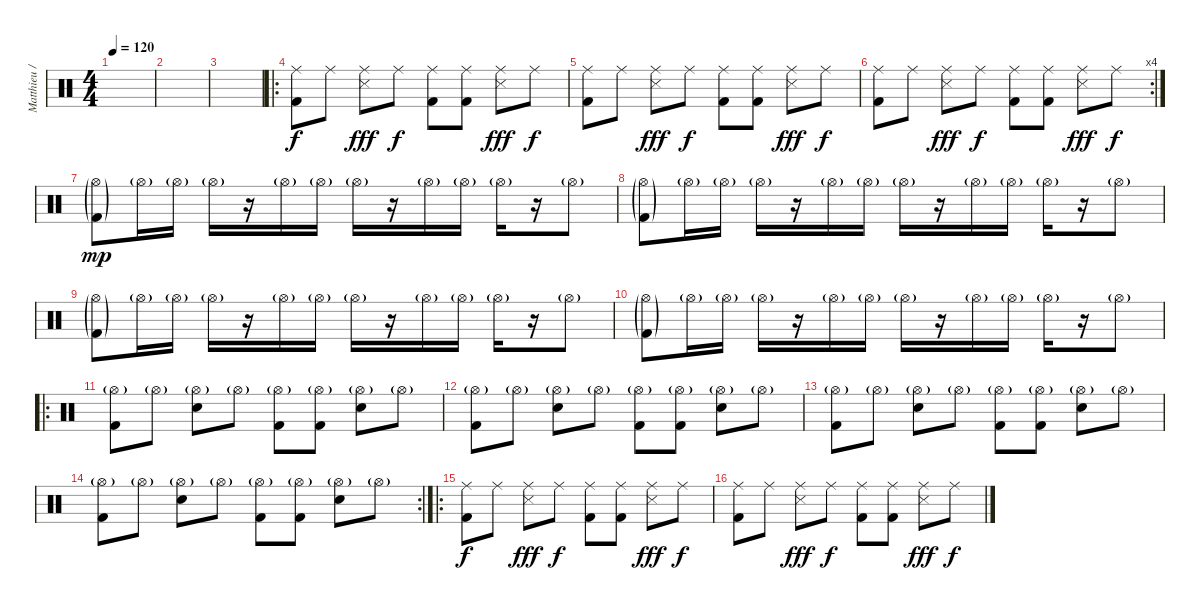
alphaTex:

\track ("Matthieu / drums" "Matthieu /") {instrument percussion}
\staff {score}
\articulation defaults
\ts (4 4)
\tempo 120
\clef neutral
\ks c
|
|
|
\ro
("Ride (middle)" "Kick (hit) 2").8 "Ride (middle)".8 ("Ride (middle)" "Snare (side stick) 3").8{dy fff} "Ride (middle)".8{dy f} ("Ride (middle)" "Kick (hit) 2").8 ("Ride (middle)" "Kick (hit) 2").8 ("Ride (middle)" "Snare (side stick) 3").8{dy fff} "Ride (middle)".8{dy f} |
("Ride (middle)" "Kick (hit) 2").8 "Ride (middle)".8 ("Ride (middle)" "Snare (side stick) 3").8{dy fff} "Ride (middle)".8{dy f} ("Ride (middle)" "Kick (hit) 2").8 ("Ride (middle)" "Kick (hit) 2").8 ("Ride (middle)" "Snare (side stick) 3").8{dy fff} "Ride (middle)".8{dy f} |
\rc 4
("Ride (middle)" "Kick (hit) 2").8 "Ride (middle)".8 ("Ride (middle)" "Snare (side stick) 3").8{dy fff} "Ride (middle)".8{dy f} ("Ride (middle)" "Kick (hit) 2").8 ("Ride (middle)" "Kick (hit) 2").8 ("Ride (middle)" "Snare (side stick) 3").8{dy fff} "Ride (middle)".8{dy f} |
("Hi-Hat (open)"{g} "Kick (hit) 2"{g}).8{dy mp} "Hi-Hat (open)"{g}.16 "Hi-Hat (open)"{g}.16 "Hi-Hat (open)"{g}.16 r.16 "Hi-Hat (open)"{g}.16 "Hi-Hat (open)"{g}.16 "Hi-Hat (open)"{g}.16 r.16 "Hi-Hat (open)"{g}.16 "Hi-Hat (open)"{g}.16 "Hi-Hat (open)"{g}.16 r.16 "Hi-Hat (open)"{g}.8 |
("Hi-Hat (open)"{g} "Kick (hit) 2"{g}).8 "Hi-Hat (open)"{g}.16 "Hi-Hat (open)"{g}.16 "Hi-Hat (open)"{g}.16 r.16 "Hi-Hat (open)"{g}.16 "Hi-Hat (open)"{g}.16 "Hi-Hat (open)"{g}.16 r.16 "Hi-Hat (open)"{g}.16 "Hi-Hat (open)"{g}.16 "Hi-Hat (open)"{g}.16 r.16 "Hi-Hat (open)"{g}.8 |
("Hi-Hat (open)"{g} "Kick (hit) 2"{g}).8 "Hi-Hat (open)"{g}.16 "Hi-Hat (open)"{g}.16 "Hi-Hat (open)"{g}.16 r.16 "Hi-Hat (open)"{g}.16 "Hi-Hat (open)"{g}.16 "Hi-Hat (open)"{g}.16 r.16 "Hi-Hat (open)"{g}.16 "Hi-Hat (open)"{g}.16 "Hi-Hat (open)"{g}.16 r.16 "Hi-Hat (open)"{g}.8 |
("Hi-Hat (open)"{g} "Kick (hit) 2"{g}).8 "Hi-Hat (open)"{g}.16 "Hi-Hat (open)"{g}.16 "Hi-Hat (open)"{g}.16 r.16 "Hi-Hat (open)"{g}.16 "Hi-Hat (open)"{g}.16 "Hi-Hat (open)"{g}.16 r.16 "Hi-Hat (open)"{g}.16 "Hi-Hat (open)"{g}.16 "Hi-Hat (open)"{g}.16 r.16 "Hi-Hat (open)"{g}.8 |
\ro
("Hi-Hat (open)"{g} "Kick (hit) 2").8 "Hi-Hat (open)"{g}.8 ("Hi-Hat (open)"{g} "Snare (hit) 2").8 "Hi-Hat (open)"{g}.8 ("Hi-Hat (open)"{g} "Kick (hit) 2").8 ("Hi-Hat (open)"{g} "Kick (hit) 2").8 ("Hi-Hat (open)"{g} "Snare (hit) 2").8 "Hi-Hat (open)"{g}.8 |
("Hi-Hat (open)"{g} "Kick (hit) 2").8 "Hi-Hat (open)"{g}.8 ("Hi-Hat (open)"{g} "Snare (hit) 2").8 "Hi-Hat (open)"{g}.8 ("Hi-Hat (open)"{g} "Kick (hit) 2").8 ("Hi-Hat (open)"{g} "Kick (hit) 2").8 ("Hi-Hat (open)"{g} "Snare (hit) 2").8 "Hi-Hat (open)"{g}.8 |
("Hi-Hat (open)"{g} "Kick (hit) 2").8 "Hi-Hat (open)"{g}.8 ("Hi-Hat (open)"{g} "Snare (hit) 2").8 "Hi-Hat (open)"{g}.8 ("Hi-Hat (open)"{g} "Kick (hit) 2").8 ("Hi-Hat (open)"{g} "Kick (hit) 2").8 ("Hi-Hat (open)"{g} "Snare (hit) 2").8 "Hi-Hat (open)"{g}.8 |
\rc 2
("Hi-Hat (open)"{g} "Kick (hit) 2").8 "Hi-Hat (open)"{g}.8 ("Hi-Hat (open)"{g} "Snare (hit) 2").8 "Hi-Hat (open)"{g}.8 ("Hi-Hat (open)"{g} "Kick (hit) 2").8 ("Hi-Hat (open)"{g} "Kick (hit) 2").8 ("Hi-Hat (open)"{g} "Snare (hit) 2").8 "Hi-Hat (open)"{g}.8 |
\ro
("Ride (middle)" "Kick (hit) 2").8{dy f} "Ride (middle)".8 ("Ride (middle)" "Snare (side stick) 3").8{dy fff} "Ride (middle)".8{dy f} ("Ride (middle)" "Kick (hit) 2").8 ("Ride (middle)" "Kick (hit) 2").8 ("Ride (middle)" "Snare (side stick) 3").8{dy fff} "Ride (middle)".8{dy f} |
("Ride (middle)" "Kick (hit) 2").8 "Ride (middle)".8 ("Ride (middle)" "Snare (side stick) 3").8{dy fff} "Ride (middle)".8{dy f} ("Ride (middle)" "Kick (hit) 2").8 ("Ride (middle)" "Kick (hit) 2").8 ("Ride (middle)" "Snare (side stick) 3").8{dy fff} "Ride (middle)".8{dy f}
